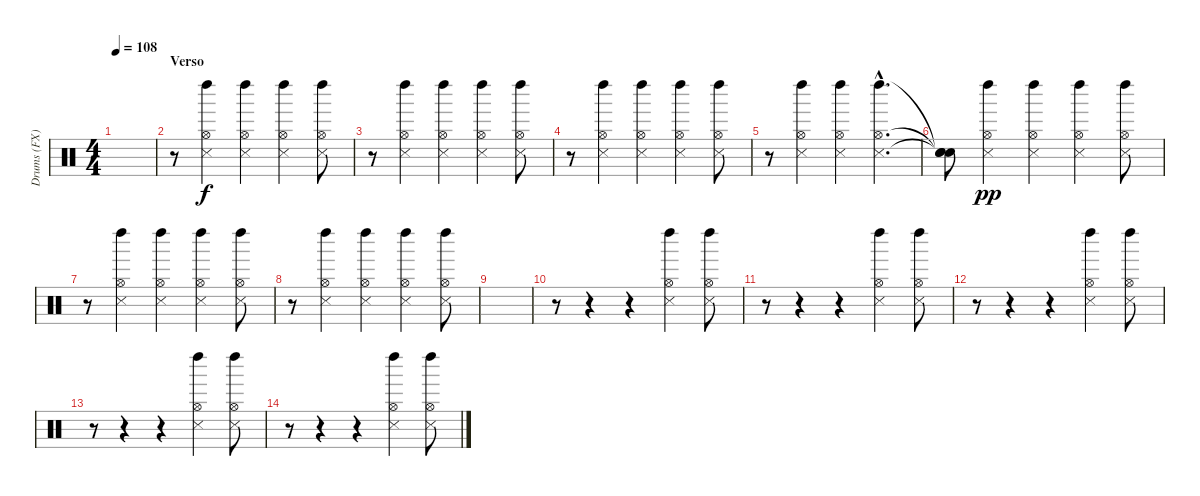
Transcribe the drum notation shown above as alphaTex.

\track ("Drums (FX)" "Drums (FX)") {instrument percussion}
\staff {score}
\articulation defaults
\ts (4 4)
\tempo 108
\clef neutral
\ks c
|
\section ("" "Verso")
r.8 ("Hi-Hat (open)" "Snare (side stick) 3" "Left Maraca (hit)").4 ("Hi-Hat (open)" "Snare (side stick) 3" "Left Maraca (hit)").4 ("Hi-Hat (open)" "Snare (side stick) 3" "Left Maraca (hit)").4 ("Hi-Hat (open)" "Snare (side stick) 3" "Left Maraca (hit)").8 |
r.8 ("Hi-Hat (open)" "Snare (side stick) 3" "Left Maraca (hit)").4 ("Hi-Hat (open)" "Snare (side stick) 3" "Left Maraca (hit)").4 ("Hi-Hat (open)" "Snare (side stick) 3" "Left Maraca (hit)").4 ("Hi-Hat (open)" "Snare (side stick) 3" "Left Maraca (hit)").8 |
r.8 ("Hi-Hat (open)" "Snare (side stick) 3" "Left Maraca (hit)").4 ("Hi-Hat (open)" "Snare (side stick) 3" "Left Maraca (hit)").4 ("Hi-Hat (open)" "Snare (side stick) 3" "Left Maraca (hit)").4 ("Hi-Hat (open)" "Snare (side stick) 3" "Left Maraca (hit)").8 |
r.8 ("Hi-Hat (open)" "Snare (side stick) 3" "Left Maraca (hit)").4 ("Hi-Hat (open)" "Snare (side stick) 3" "Left Maraca (hit)").4 ("Hi-Hat (open)"{hac} "Snare (side stick) 3"{hac} "Left Maraca (hit)"{hac}).4{d} |
("Snare (hit)"{t} "Snare (hit)"{t} "Snare (hit)"{t}).8{dy f} ("Hi-Hat (open)" "Snare (side stick) 3" "Left Maraca (hit)").4{dy pp} ("Hi-Hat (open)" "Snare (side stick) 3" "Left Maraca (hit)").4 ("Hi-Hat (open)" "Snare (side stick) 3" "Left Maraca (hit)").4 ("Hi-Hat (open)" "Snare (side stick) 3" "Left Maraca (hit)").8 |
r.8 ("Hi-Hat (open)" "Snare (side stick) 3" "Left Maraca (hit)").4 ("Hi-Hat (open)" "Snare (side stick) 3" "Left Maraca (hit)").4 ("Hi-Hat (open)" "Snare (side stick) 3" "Left Maraca (hit)").4 ("Hi-Hat (open)" "Snare (side stick) 3" "Left Maraca (hit)").8 |
r.8 ("Hi-Hat (open)" "Snare (side stick) 3" "Left Maraca (hit)").4 ("Hi-Hat (open)" "Snare (side stick) 3" "Left Maraca (hit)").4 ("Hi-Hat (open)" "Snare (side stick) 3" "Left Maraca (hit)").4 ("Hi-Hat (open)" "Snare (side stick) 3" "Left Maraca (hit)").8 |
|
r.8 r.4 r.4 ("Hi-Hat (open)" "Snare (side stick) 3" "Left Maraca (hit)").4 ("Hi-Hat (open)" "Snare (side stick) 3" "Left Maraca (hit)").8 |
r.8 r.4 r.4 ("Hi-Hat (open)" "Snare (side stick) 3" "Left Maraca (hit)").4 ("Hi-Hat (open)" "Snare (side stick) 3" "Left Maraca (hit)").8 |
r.8 r.4 r.4 ("Hi-Hat (open)" "Snare (side stick) 3" "Left Maraca (hit)").4 ("Hi-Hat (open)" "Snare (side stick) 3" "Left Maraca (hit)").8 |
r.8 r.4 r.4 ("Hi-Hat (open)" "Snare (side stick) 3" "Left Maraca (hit)").4 ("Hi-Hat (open)" "Snare (side stick) 3" "Left Maraca (hit)").8 |
r.8 r.4 r.4 ("Hi-Hat (open)" "Snare (side stick) 3" "Left Maraca (hit)").4 ("Hi-Hat (open)" "Snare (side stick) 3" "Left Maraca (hit)").8
